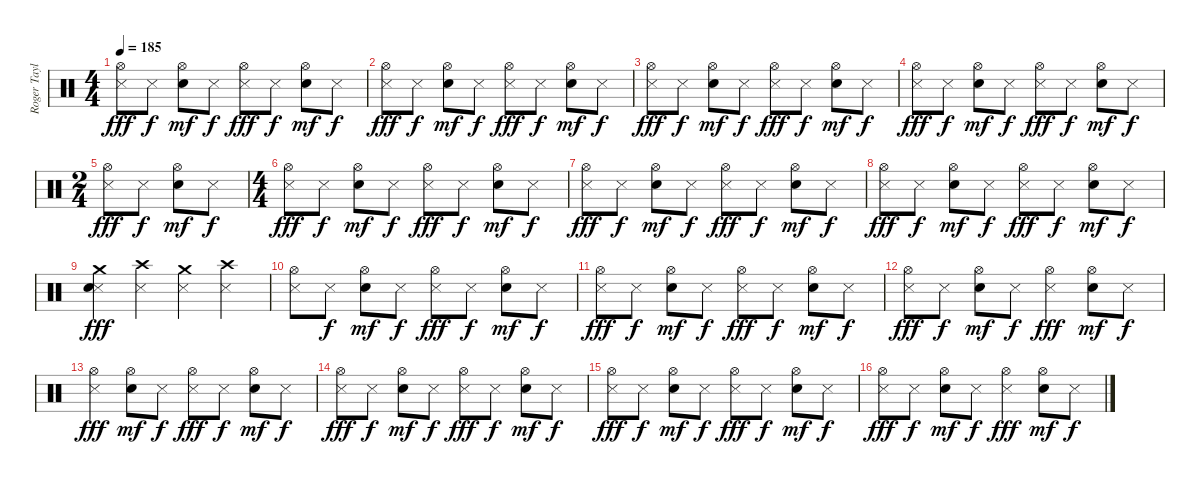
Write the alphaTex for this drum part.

\track ("Roger Taylor" "Roger Tayl") {instrument percussion}
\staff {score}
\articulation defaults
\ts (4 4)
\tempo 185
\clef neutral
\ks c
("Metronome (hit)" "Hi-Hat (open)").8{dy fff} "Metronome (hit)".8{dy f} ("Snare (hit) 2" "Hi-Hat (open)").8{dy mf} "Metronome (hit)".8{dy f} ("Metronome (hit)" "Hi-Hat (open)").8{dy fff} "Metronome (hit)".8{dy f} ("Snare (hit) 2" "Hi-Hat (open)").8{dy mf} "Metronome (hit)".8{dy f} |
("Metronome (hit)" "Hi-Hat (open)").8{dy fff} "Metronome (hit)".8{dy f} ("Snare (hit) 2" "Hi-Hat (open)").8{dy mf} "Metronome (hit)".8{dy f} ("Metronome (hit)" "Hi-Hat (open)").8{dy fff} "Metronome (hit)".8{dy f} ("Snare (hit) 2" "Hi-Hat (open)").8{dy mf} "Metronome (hit)".8{dy f} |
("Metronome (hit)" "Hi-Hat (open)").8{dy fff} "Metronome (hit)".8{dy f} ("Snare (hit) 2" "Hi-Hat (open)").8{dy mf} "Metronome (hit)".8{dy f} ("Metronome (hit)" "Hi-Hat (open)").8{dy fff} "Metronome (hit)".8{dy f} ("Snare (hit) 2" "Hi-Hat (open)").8{dy mf} "Metronome (hit)".8{dy f} |
("Metronome (hit)" "Hi-Hat (open)").8{dy fff} "Metronome (hit)".8{dy f} ("Snare (hit) 2" "Hi-Hat (open)").8{dy mf} "Metronome (hit)".8{dy f} ("Metronome (hit)" "Hi-Hat (open)").8{dy fff} "Metronome (hit)".8{dy f} ("Snare (hit) 2" "Hi-Hat (open)").8{dy mf} "Metronome (hit)".8{dy f} |
\ts (2 4)
("Metronome (hit)" "Hi-Hat (open)").8{dy fff} "Metronome (hit)".8{dy f} ("Snare (hit) 2" "Hi-Hat (open)").8{dy mf} "Metronome (hit)".8{dy f} |
\ts (4 4)
("Metronome (hit)" "Hi-Hat (open)").8{dy fff} "Metronome (hit)".8{dy f} ("Snare (hit) 2" "Hi-Hat (open)").8{dy mf} "Metronome (hit)".8{dy f} ("Metronome (hit)" "Hi-Hat (open)").8{dy fff} "Metronome (hit)".8{dy f} ("Snare (hit) 2" "Hi-Hat (open)").8{dy mf} "Metronome (hit)".8{dy f} |
("Metronome (hit)" "Hi-Hat (open)").8{dy fff} "Metronome (hit)".8{dy f} ("Snare (hit) 2" "Hi-Hat (open)").8{dy mf} "Metronome (hit)".8{dy f} ("Metronome (hit)" "Hi-Hat (open)").8{dy fff} "Metronome (hit)".8{dy f} ("Snare (hit) 2" "Hi-Hat (open)").8{dy mf} "Metronome (hit)".8{dy f} |
("Metronome (hit)" "Hi-Hat (open)").8{dy fff} "Metronome (hit)".8{dy f} ("Snare (hit) 2" "Hi-Hat (open)").8{dy mf} "Metronome (hit)".8{dy f} ("Metronome (hit)" "Hi-Hat (open)").8{dy fff} "Metronome (hit)".8{dy f} ("Snare (hit) 2" "Hi-Hat (open)").8{dy mf} "Metronome (hit)".8{dy f} |
("Metronome (hit)" "Crash medium (hit)" "Snare (hit) 2").4{dy fff} ("Crash high (hit)" "Metronome (hit)").4 ("Crash medium (hit)" "Metronome (hit)").4 ("Crash high (hit)" "Metronome (hit)").4 |
("Metronome (hit)" "Hi-Hat (open)").8 "Metronome (hit)".8{dy f} ("Snare (hit) 2" "Hi-Hat (open)").8{dy mf} "Metronome (hit)".8{dy f} ("Metronome (hit)" "Hi-Hat (open)").8{dy fff} "Metronome (hit)".8{dy f} ("Snare (hit) 2" "Hi-Hat (open)").8{dy mf} "Metronome (hit)".8{dy f} |
("Metronome (hit)" "Hi-Hat (open)").8{dy fff} "Metronome (hit)".8{dy f} ("Snare (hit) 2" "Hi-Hat (open)").8{dy mf} "Metronome (hit)".8{dy f} ("Metronome (hit)" "Hi-Hat (open)").8{dy fff} "Metronome (hit)".8{dy f} ("Snare (hit) 2" "Hi-Hat (open)").8{dy mf} "Metronome (hit)".8{dy f} |
("Metronome (hit)" "Hi-Hat (open)").8{dy fff} "Metronome (hit)".8{dy f} ("Snare (hit) 2" "Hi-Hat (open)").8{dy mf} "Metronome (hit)".8{dy f} ("Metronome (hit)" "Hi-Hat (open)").4{dy fff} ("Snare (hit) 2" "Hi-Hat (open)").8{dy mf} "Metronome (hit)".8{dy f} |
("Metronome (hit)" "Hi-Hat (open)").4{dy fff} ("Snare (hit) 2" "Hi-Hat (open)").8{dy mf} "Metronome (hit)".8{dy f} ("Metronome (hit)" "Hi-Hat (open)").8{dy fff} "Metronome (hit)".8{dy f} ("Snare (hit) 2" "Hi-Hat (open)").8{dy mf} "Metronome (hit)".8{dy f} |
("Metronome (hit)" "Hi-Hat (open)").8{dy fff} "Metronome (hit)".8{dy f} ("Snare (hit) 2" "Hi-Hat (open)").8{dy mf} "Metronome (hit)".8{dy f} ("Metronome (hit)" "Hi-Hat (open)").8{dy fff} "Metronome (hit)".8{dy f} ("Snare (hit) 2" "Hi-Hat (open)").8{dy mf} "Metronome (hit)".8{dy f} |
("Metronome (hit)" "Hi-Hat (open)").8{dy fff} "Metronome (hit)".8{dy f} ("Snare (hit) 2" "Hi-Hat (open)").8{dy mf} "Metronome (hit)".8{dy f} ("Metronome (hit)" "Hi-Hat (open)").8{dy fff} "Metronome (hit)".8{dy f} ("Snare (hit) 2" "Hi-Hat (open)").8{dy mf} "Metronome (hit)".8{dy f} |
("Metronome (hit)" "Hi-Hat (open)").8{dy fff} "Metronome (hit)".8{dy f} ("Snare (hit) 2" "Hi-Hat (open)").8{dy mf} "Metronome (hit)".8{dy f} ("Metronome (hit)" "Hi-Hat (open)").4{dy fff} ("Snare (hit) 2" "Hi-Hat (open)").8{dy mf} "Metronome (hit)".8{dy f}
